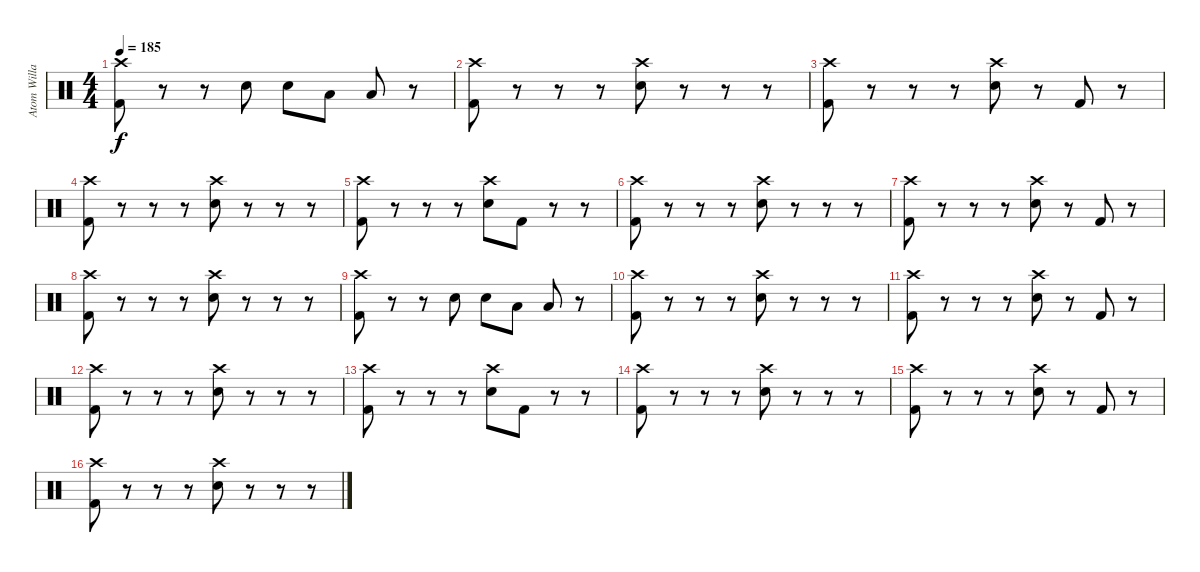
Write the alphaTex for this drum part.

\track ("Atom Willard Drums" "Atom Willa") {instrument percussion}
\staff {score}
\articulation defaults
\ts (4 4)
\tempo 185
\clef neutral
\ks c
("Crash high (hit)" "Kick (hit) 2").8{dy f} r.8 r.8 "Electric Snare (hit)".8 "Electric Snare (hit)".8 "Low Tom (hit)".8 "Low Tom (hit)".8 r.8 |
("Crash high (hit)" "Kick (hit) 2").8 r.8 r.8 r.8 ("Crash high (hit)" "Electric Snare (hit)").8 r.8 r.8 r.8 |
("Crash high (hit)" "Kick (hit) 2").8 r.8 r.8 r.8 ("Crash high (hit)" "Electric Snare (hit)").8 r.8 "Kick (hit) 2".8 r.8 |
("Crash high (hit)" "Kick (hit) 2").8 r.8 r.8 r.8 ("Crash high (hit)" "Electric Snare (hit)").8 r.8 r.8 r.8 |
("Crash high (hit)" "Kick (hit) 2").8 r.8 r.8 r.8 ("Crash high (hit)" "Electric Snare (hit)").8 "Kick (hit) 2".8 r.8 r.8 |
("Crash high (hit)" "Kick (hit) 2").8 r.8 r.8 r.8 ("Crash high (hit)" "Electric Snare (hit)").8 r.8 r.8 r.8 |
("Crash high (hit)" "Kick (hit) 2").8 r.8 r.8 r.8 ("Crash high (hit)" "Electric Snare (hit)").8 r.8 "Kick (hit) 2".8 r.8 |
("Crash high (hit)" "Kick (hit) 2").8 r.8 r.8 r.8 ("Crash high (hit)" "Electric Snare (hit)").8 r.8 r.8 r.8 |
("Crash high (hit)" "Kick (hit) 2").8 r.8 r.8 "Electric Snare (hit)".8 "Electric Snare (hit)".8 "Low Tom (hit)".8 "Low Tom (hit)".8 r.8 |
("Crash high (hit)" "Kick (hit) 2").8 r.8 r.8 r.8 ("Crash high (hit)" "Electric Snare (hit)").8 r.8 r.8 r.8 |
("Crash high (hit)" "Kick (hit) 2").8 r.8 r.8 r.8 ("Crash high (hit)" "Electric Snare (hit)").8 r.8 "Kick (hit) 2".8 r.8 |
("Crash high (hit)" "Kick (hit) 2").8 r.8 r.8 r.8 ("Crash high (hit)" "Electric Snare (hit)").8 r.8 r.8 r.8 |
("Crash high (hit)" "Kick (hit) 2").8 r.8 r.8 r.8 ("Crash high (hit)" "Electric Snare (hit)").8 "Kick (hit) 2".8 r.8 r.8 |
("Crash high (hit)" "Kick (hit) 2").8 r.8 r.8 r.8 ("Crash high (hit)" "Electric Snare (hit)").8 r.8 r.8 r.8 |
("Crash high (hit)" "Kick (hit) 2").8 r.8 r.8 r.8 ("Crash high (hit)" "Electric Snare (hit)").8 r.8 "Kick (hit) 2".8 r.8 |
("Crash high (hit)" "Kick (hit) 2").8 r.8 r.8 r.8 ("Crash high (hit)" "Electric Snare (hit)").8 r.8 r.8 r.8
